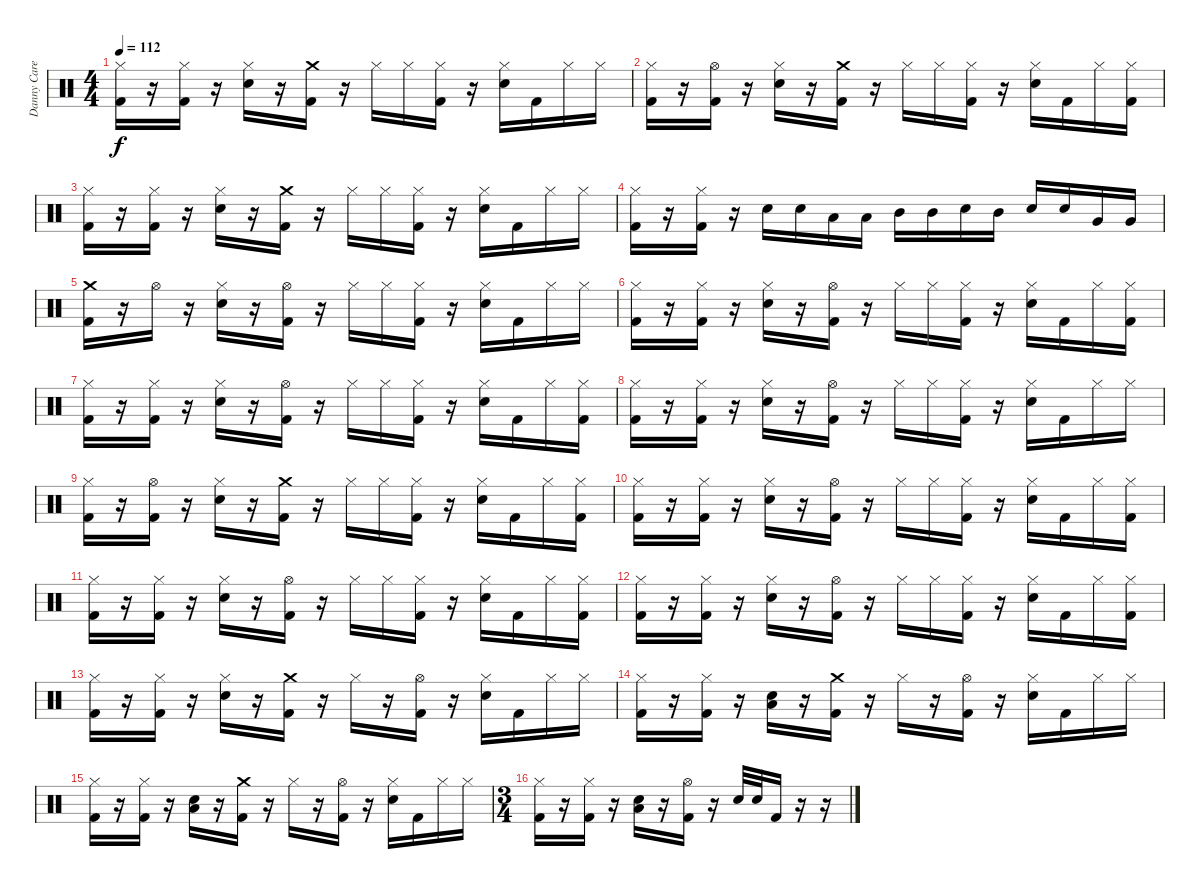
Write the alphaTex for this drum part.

\track ("Danny Carey" "Danny Care") {instrument percussion}
\staff {score}
\articulation defaults
\ts (4 4)
\tempo 112
\clef neutral
\ks c
("Hi-Hat (closed)" "Kick (hit) 2").16{dy f} r.16 ("Hi-Hat (closed)" "Kick (hit) 2").16 r.16 ("Hi-Hat (closed)" "Snare (hit) 2").16 r.16 ("Crash medium (hit)" "Kick (hit) 2").16 r.16 "Hi-Hat (closed)".16 "Hi-Hat (closed)".16 ("Hi-Hat (closed)" "Kick (hit) 2").16 r.16 ("Hi-Hat (closed)" "Snare (hit) 2").16 "Kick (hit) 2".16 "Hi-Hat (closed)".16 "Hi-Hat (closed)".16 |
("Hi-Hat (closed)" "Kick (hit) 2").16 r.16 ("Hi-Hat (open)" "Kick (hit) 2").16 r.16 ("Hi-Hat (closed)" "Snare (hit) 2").16 r.16 ("Crash medium (hit)" "Kick (hit) 2").16 r.16 "Hi-Hat (closed)".16 "Hi-Hat (closed)".16 ("Hi-Hat (closed)" "Kick (hit) 2").16 r.16 ("Hi-Hat (closed)" "Snare (hit) 2").16 "Kick (hit) 2".16 "Hi-Hat (closed)".16 ("Hi-Hat (closed)" "Kick (hit) 2").16 |
("Hi-Hat (closed)" "Kick (hit) 2").16 r.16 ("Hi-Hat (closed)" "Kick (hit) 2").16 r.16 ("Hi-Hat (closed)" "Snare (hit) 2").16 r.16 ("Crash medium (hit)" "Kick (hit) 2").16 r.16 "Hi-Hat (closed)".16 "Hi-Hat (closed)".16 ("Hi-Hat (closed)" "Kick (hit) 2").16 r.16 ("Hi-Hat (closed)" "Snare (hit) 2").16 "Kick (hit) 2".16 "Hi-Hat (closed)".16 "Hi-Hat (closed)".16 |
("Hi-Hat (closed)" "Kick (hit) 2").16 r.16 ("Hi-Hat (closed)" "Kick (hit) 2").16 r.16 "Snare (hit) 2".16 "Snare (hit) 2".16 "Low Tom (hit)".16 "Low Tom (hit)".16 "Mid Tom (hit)".16 "Mid Tom (hit)".16 "Snare (hit) 2".16 "Mid Tom (hit)".16 "Snare (hit) 2".16 "Snare (hit) 2".16 "Very Low Tom (hit)".16 "Very Low Tom (hit)".16 |
("Crash medium (hit)" "Kick (hit) 2").16 r.16 "Hi-Hat (open)".16 r.16 ("Hi-Hat (closed)" "Snare (hit) 2").16 r.16 ("Hi-Hat (open)" "Kick (hit) 2").16 r.16 "Hi-Hat (closed)".16 "Hi-Hat (closed)".16 ("Hi-Hat (closed)" "Kick (hit) 2").16 r.16 ("Hi-Hat (closed)" "Snare (hit) 2").16 "Kick (hit) 2".16 "Hi-Hat (closed)".16 "Hi-Hat (closed)".16 |
("Hi-Hat (closed)" "Kick (hit) 2").16 r.16 ("Hi-Hat (closed)" "Kick (hit) 2").16 r.16 ("Hi-Hat (closed)" "Snare (hit) 2").16 r.16 ("Hi-Hat (open)" "Kick (hit) 2").16 r.16 "Hi-Hat (closed)".16 "Hi-Hat (closed)".16 ("Hi-Hat (closed)" "Kick (hit) 2").16 r.16 ("Hi-Hat (closed)" "Snare (hit) 2").16 "Kick (hit) 2".16 "Hi-Hat (closed)".16 ("Hi-Hat (closed)" "Kick (hit) 2").16 |
("Hi-Hat (closed)" "Kick (hit) 2").16 r.16 ("Hi-Hat (closed)" "Kick (hit) 2").16 r.16 ("Hi-Hat (closed)" "Snare (hit) 2").16 r.16 ("Hi-Hat (open)" "Kick (hit) 2").16 r.16 "Hi-Hat (closed)".16 "Hi-Hat (closed)".16 ("Hi-Hat (closed)" "Kick (hit) 2").16 r.16 ("Hi-Hat (closed)" "Snare (hit) 2").16 "Kick (hit) 2".16 "Hi-Hat (closed)".16 ("Hi-Hat (closed)" "Kick (hit) 2").16 |
("Hi-Hat (closed)" "Kick (hit) 2").16 r.16 ("Hi-Hat (closed)" "Kick (hit) 2").16 r.16 ("Hi-Hat (closed)" "Snare (hit) 2").16 r.16 ("Hi-Hat (open)" "Kick (hit) 2").16 r.16 "Hi-Hat (closed)".16 "Hi-Hat (closed)".16 ("Hi-Hat (closed)" "Kick (hit) 2").16 r.16 ("Hi-Hat (closed)" "Snare (hit) 2").16 "Kick (hit) 2".16 "Hi-Hat (closed)".16 "Hi-Hat (closed)".16 |
("Hi-Hat (closed)" "Kick (hit) 2").16 r.16 ("Hi-Hat (open)" "Kick (hit) 2").16 r.16 ("Hi-Hat (closed)" "Snare (hit) 2").16 r.16 ("Crash medium (hit)" "Kick (hit) 2").16 r.16 "Hi-Hat (closed)".16 "Hi-Hat (closed)".16 ("Hi-Hat (closed)" "Kick (hit) 2").16 r.16 ("Hi-Hat (closed)" "Snare (hit) 2").16 "Kick (hit) 2".16 "Hi-Hat (closed)".16 ("Hi-Hat (closed)" "Kick (hit) 2").16 |
("Hi-Hat (closed)" "Kick (hit) 2").16 r.16 ("Hi-Hat (closed)" "Kick (hit) 2").16 r.16 ("Hi-Hat (closed)" "Snare (hit) 2").16 r.16 ("Hi-Hat (open)" "Kick (hit) 2").16 r.16 "Hi-Hat (closed)".16 "Hi-Hat (closed)".16 ("Hi-Hat (closed)" "Kick (hit) 2").16 r.16 ("Hi-Hat (closed)" "Snare (hit) 2").16 "Kick (hit) 2".16 "Hi-Hat (closed)".16 ("Hi-Hat (closed)" "Kick (hit) 2").16 |
("Hi-Hat (closed)" "Kick (hit) 2").16 r.16 ("Hi-Hat (closed)" "Kick (hit) 2").16 r.16 ("Hi-Hat (closed)" "Snare (hit) 2").16 r.16 ("Hi-Hat (open)" "Kick (hit) 2").16 r.16 "Hi-Hat (closed)".16 "Hi-Hat (closed)".16 ("Hi-Hat (closed)" "Kick (hit) 2").16 r.16 ("Hi-Hat (closed)" "Snare (hit) 2").16 "Kick (hit) 2".16 "Hi-Hat (closed)".16 ("Hi-Hat (closed)" "Kick (hit) 2").16 |
("Hi-Hat (closed)" "Kick (hit) 2").16 r.16 ("Hi-Hat (closed)" "Kick (hit) 2").16 r.16 ("Hi-Hat (closed)" "Snare (hit) 2").16 r.16 ("Hi-Hat (open)" "Kick (hit) 2").16 r.16 "Hi-Hat (closed)".16 "Hi-Hat (closed)".16 ("Hi-Hat (closed)" "Kick (hit) 2").16 r.16 ("Hi-Hat (closed)" "Snare (hit) 2").16 "Kick (hit) 2".16 "Hi-Hat (closed)".16 ("Hi-Hat (closed)" "Kick (hit) 2").16 |
("Hi-Hat (closed)" "Kick (hit) 2").16 r.16 ("Hi-Hat (closed)" "Kick (hit) 2").16 r.16 ("Hi-Hat (closed)" "Snare (hit) 2").16 r.16 ("Crash medium (hit)" "Kick (hit) 2").16 r.16 "Hi-Hat (closed)".16 r.16 ("Hi-Hat (open)" "Kick (hit) 2").16 r.16 ("Hi-Hat (closed)" "Snare (hit) 2").16 "Kick (hit) 2".16 "Hi-Hat (closed)".16 "Hi-Hat (closed)".16 |
("Hi-Hat (closed)" "Kick (hit) 2").16 r.16 ("Hi-Hat (closed)" "Kick (hit) 2").16 r.16 ("Snare (hit) 2" "Low Floor Tom (hit)").16 r.16 ("Crash medium (hit)" "Kick (hit) 2").16 r.16 "Hi-Hat (closed)".16 r.16 ("Hi-Hat (open)" "Kick (hit) 2").16 r.16 ("Hi-Hat (closed)" "Snare (hit) 2").16 "Kick (hit) 2".16 "Hi-Hat (closed)".16 "Hi-Hat (closed)".16 |
("Hi-Hat (closed)" "Kick (hit) 2").16 r.16 ("Hi-Hat (closed)" "Kick (hit) 2").16 r.16 ("Snare (hit) 2" "Low Floor Tom (hit)").16 r.16 ("Crash medium (hit)" "Kick (hit) 2").16 r.16 "Hi-Hat (closed)".16 r.16 ("Hi-Hat (open)" "Kick (hit) 2").16 r.16 ("Hi-Hat (closed)" "Snare (hit) 2").16 "Kick (hit) 2".16 "Hi-Hat (closed)".16 "Hi-Hat (closed)".16 |
\ts (3 4)
("Hi-Hat (closed)" "Kick (hit) 2").16 r.16 ("Hi-Hat (closed)" "Kick (hit) 2").16 r.16 ("Snare (hit) 2" "Low Floor Tom (hit)").16 r.16 ("Hi-Hat (open)" "Kick (hit) 2").16 r.16 "Snare (hit) 2".32 "Snare (hit) 2".32 "Kick (hit) 2".16 r.16 r.16
